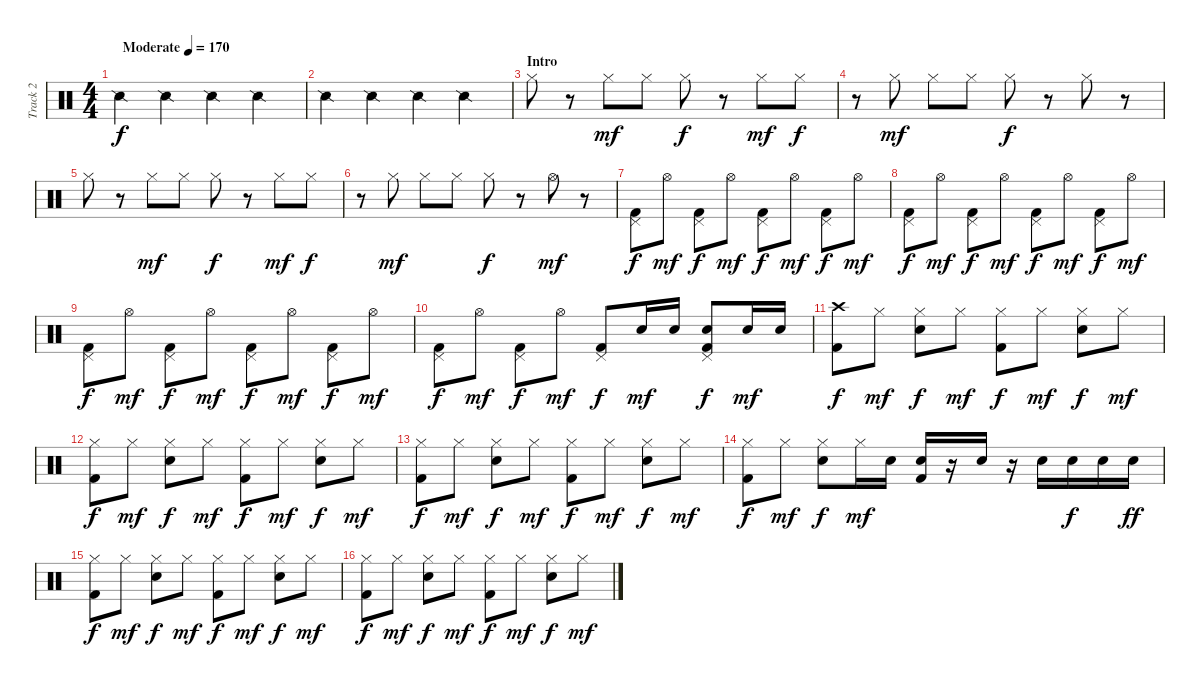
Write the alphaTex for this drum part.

\track ("Track 2" "Track 2") {instrument percussion}
\staff {score}
\articulation defaults
\ts (4 4)
\tempo (170 "Moderate")
\clef neutral
\ks c "Snare (side stick) 2".4{dy f} "Snare (side stick) 2".4 "Snare (side stick) 2".4 "Snare (side stick) 2".4
|
"Snare (side stick) 2".4 "Snare (side stick) 2".4 "Snare (side stick) 2".4 "Snare (side stick) 2".4 |
\section ("" "Intro")
"Hi-Hat (closed)".8 r.8 "Hi-Hat (closed)".8{dy mf} "Hi-Hat (closed)".8 "Hi-Hat (closed)".8{dy f} r.8 "Hi-Hat (closed)".8{dy mf} "Hi-Hat (closed)".8{dy f} |
r.8 "Hi-Hat (closed)".8{dy mf} "Hi-Hat (closed)".8 "Hi-Hat (closed)".8 "Hi-Hat (closed)".8{dy f} r.8 "Hi-Hat (closed)".8 r.8 |
"Hi-Hat (closed)".8 r.8 "Hi-Hat (closed)".8{dy mf} "Hi-Hat (closed)".8 "Hi-Hat (closed)".8{dy f} r.8 "Hi-Hat (closed)".8{dy mf} "Hi-Hat (closed)".8{dy f} |
r.8 "Hi-Hat (closed)".8{dy mf} "Hi-Hat (closed)".8 "Hi-Hat (closed)".8 "Hi-Hat (closed)".8{dy f} r.8 "Hi-Hat (open)".8{dy mf} r.8 |
("Pedal Hi-Hat (hit)" "Kick (hit) 2").8{dy f} "Hi-Hat (open)".8{dy mf} ("Pedal Hi-Hat (hit)" "Kick (hit) 2").8{dy f} "Hi-Hat (open)".8{dy mf} ("Pedal Hi-Hat (hit)" "Kick (hit) 2").8{dy f} "Hi-Hat (open)".8{dy mf} ("Pedal Hi-Hat (hit)" "Kick (hit) 2").8{dy f} "Hi-Hat (open)".8{dy mf} |
("Pedal Hi-Hat (hit)" "Kick (hit) 2").8{dy f} "Hi-Hat (open)".8{dy mf} ("Pedal Hi-Hat (hit)" "Kick (hit) 2").8{dy f} "Hi-Hat (open)".8{dy mf} ("Pedal Hi-Hat (hit)" "Kick (hit) 2").8{dy f} "Hi-Hat (open)".8{dy mf} ("Pedal Hi-Hat (hit)" "Kick (hit) 2").8{dy f} "Hi-Hat (open)".8{dy mf} |
("Pedal Hi-Hat (hit)" "Kick (hit) 2").8{dy f} "Hi-Hat (open)".8{dy mf} ("Pedal Hi-Hat (hit)" "Kick (hit) 2").8{dy f} "Hi-Hat (open)".8{dy mf} ("Pedal Hi-Hat (hit)" "Kick (hit) 2").8{dy f} "Hi-Hat (open)".8{dy mf} ("Pedal Hi-Hat (hit)" "Kick (hit) 2").8{dy f} "Hi-Hat (open)".8{dy mf} |
("Pedal Hi-Hat (hit)" "Kick (hit) 2").8{dy f} "Hi-Hat (open)".8{dy mf} ("Pedal Hi-Hat (hit)" "Kick (hit) 2").8{dy f} "Hi-Hat (open)".8{dy mf} ("Pedal Hi-Hat (hit)" "Kick (hit) 2").8{dy f} "Electric Snare (hit)".16{dy mf} "Electric Snare (hit)".16 ("Pedal Hi-Hat (hit)" "Electric Snare (hit)" "Kick (hit) 2").8{dy f} "Electric Snare (hit)".16{dy mf} "Electric Snare (hit)".16 |
("Crash high (hit)" "Kick (hit) 2").8{dy f} "Hi-Hat (closed)".8{dy mf} ("Hi-Hat (closed)" "Electric Snare (hit)").8{dy f} "Hi-Hat (closed)".8{dy mf} ("Hi-Hat (closed)" "Kick (hit) 2").8{dy f} "Hi-Hat (closed)".8{dy mf} ("Hi-Hat (closed)" "Electric Snare (hit)").8{dy f} "Hi-Hat (closed)".8{dy mf} |
("Hi-Hat (closed)" "Kick (hit) 2").8{dy f} "Hi-Hat (closed)".8{dy mf} ("Hi-Hat (closed)" "Electric Snare (hit)").8{dy f} "Hi-Hat (closed)".8{dy mf} ("Hi-Hat (closed)" "Kick (hit) 2").8{dy f} "Hi-Hat (closed)".8{dy mf} ("Hi-Hat (closed)" "Electric Snare (hit)").8{dy f} "Hi-Hat (closed)".8{dy mf} |
("Hi-Hat (closed)" "Kick (hit) 2").8{dy f} "Hi-Hat (closed)".8{dy mf} ("Hi-Hat (closed)" "Electric Snare (hit)").8{dy f} "Hi-Hat (closed)".8{dy mf} ("Hi-Hat (closed)" "Kick (hit) 2").8{dy f} "Hi-Hat (closed)".8{dy mf} ("Hi-Hat (closed)" "Electric Snare (hit)").8{dy f} "Hi-Hat (closed)".8{dy mf} |
("Hi-Hat (closed)" "Kick (hit) 2").8{dy f} "Hi-Hat (closed)".8{dy mf} ("Hi-Hat (closed)" "Electric Snare (hit)").8{dy f} "Hi-Hat (closed)".16{dy mf} "Electric Snare (hit)".16 ("Electric Snare (hit)" "Kick (hit) 2").16 r.16 "Electric Snare (hit)".16 r.16 "Electric Snare (hit)".16 "Electric Snare (hit)".16{dy f} "Electric Snare (hit)".16 "Electric Snare (hit)".16{dy ff} |
("Hi-Hat (closed)" "Kick (hit) 2").8{dy f} "Hi-Hat (closed)".8{dy mf} ("Hi-Hat (closed)" "Electric Snare (hit)").8{dy f} "Hi-Hat (closed)".8{dy mf} ("Hi-Hat (closed)" "Kick (hit) 2").8{dy f} "Hi-Hat (closed)".8{dy mf} ("Hi-Hat (closed)" "Electric Snare (hit)").8{dy f} "Hi-Hat (closed)".8{dy mf} |
("Hi-Hat (closed)" "Kick (hit) 2").8{dy f} "Hi-Hat (closed)".8{dy mf} ("Hi-Hat (closed)" "Electric Snare (hit)").8{dy f} "Hi-Hat (closed)".8{dy mf} ("Hi-Hat (closed)" "Kick (hit) 2").8{dy f} "Hi-Hat (closed)".8{dy mf} ("Hi-Hat (closed)" "Electric Snare (hit)").8{dy f} "Hi-Hat (closed)".8{dy mf}
